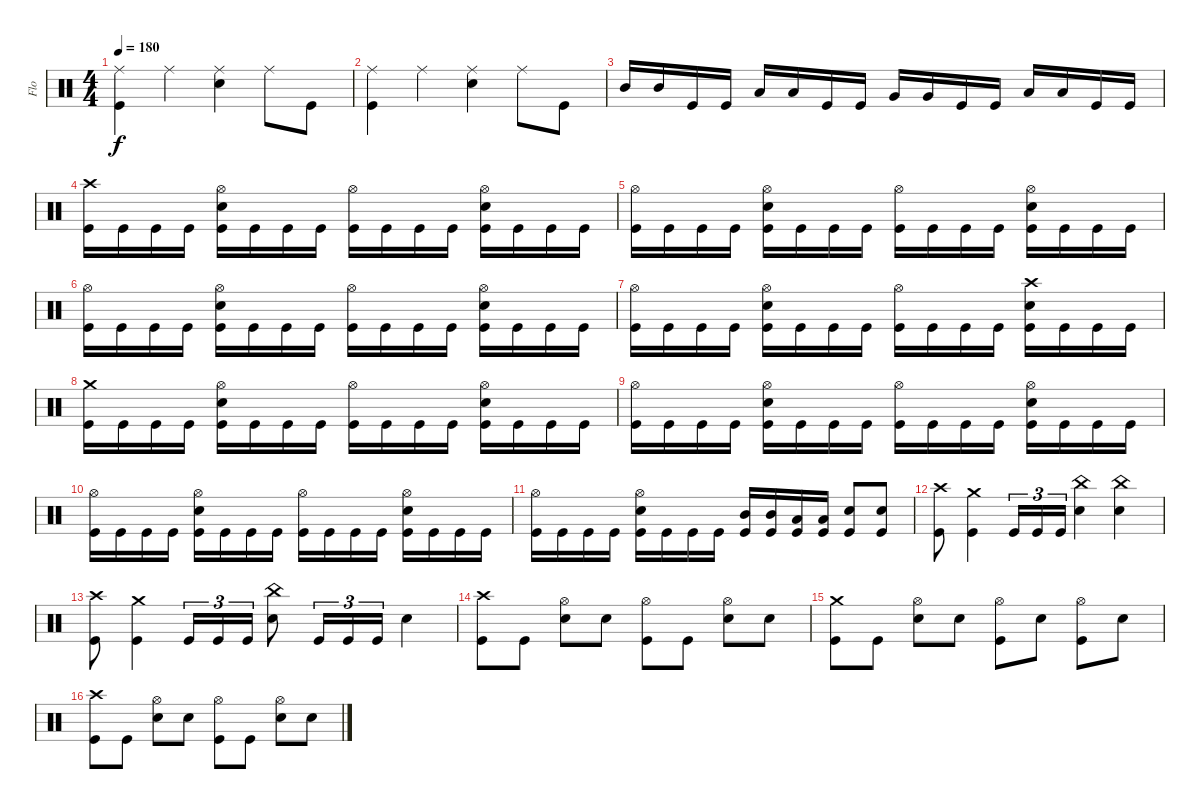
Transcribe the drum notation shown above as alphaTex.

\track ("Flo" "Flo") {instrument percussion}
\staff {score}
\articulation defaults
\ts (4 4)
\tempo 180
\clef neutral
\ks c
("Ride (middle)" "Kick (hit)").4{dy f} "Ride (middle)".4 ("Ride (middle)" "Snare (hit) 2").4 "Ride (middle)".8 "Kick (hit)".8 |
("Ride (middle)" "Kick (hit)").4 "Ride (middle)".4 ("Ride (middle)" "Snare (hit) 2").4 "Ride (middle)".8 "Kick (hit)".8 |
"Mid Tom (hit)".16 "Mid Tom (hit)".16 "Kick (hit)".16 "Kick (hit)".16 "Low Tom (hit)".16 "Low Tom (hit)".16 "Kick (hit)".16 "Kick (hit)".16 "Very Low Tom (hit)".16 "Very Low Tom (hit)".16 "Kick (hit)".16 "Kick (hit)".16 "Low Floor Tom (hit)".16 "Low Floor Tom (hit)".16 "Kick (hit)".16 "Kick (hit)".16 |
("Crash high (hit)" "Kick (hit)").16 "Kick (hit)".16 "Kick (hit)".16 "Kick (hit)".16 ("Hi-Hat (open)" "Snare (hit) 2" "Kick (hit)").16 "Kick (hit)".16 "Kick (hit)".16 "Kick (hit)".16 ("Hi-Hat (open)" "Kick (hit)").16 "Kick (hit)".16 "Kick (hit)".16 "Kick (hit)".16 ("Hi-Hat (open)" "Snare (hit) 2" "Kick (hit)").16 "Kick (hit)".16 "Kick (hit)".16 "Kick (hit)".16 |
("Hi-Hat (open)" "Kick (hit)").16 "Kick (hit)".16 "Kick (hit)".16 "Kick (hit)".16 ("Hi-Hat (open)" "Snare (hit) 2" "Kick (hit)").16 "Kick (hit)".16 "Kick (hit)".16 "Kick (hit)".16 ("Hi-Hat (open)" "Kick (hit)").16 "Kick (hit)".16 "Kick (hit)".16 "Kick (hit)".16 ("Hi-Hat (open)" "Snare (hit) 2" "Kick (hit)").16 "Kick (hit)".16 "Kick (hit)".16 "Kick (hit)".16 |
("Hi-Hat (open)" "Kick (hit)").16 "Kick (hit)".16 "Kick (hit)".16 "Kick (hit)".16 ("Hi-Hat (open)" "Snare (hit) 2" "Kick (hit)").16 "Kick (hit)".16 "Kick (hit)".16 "Kick (hit)".16 ("Hi-Hat (open)" "Kick (hit)").16 "Kick (hit)".16 "Kick (hit)".16 "Kick (hit)".16 ("Hi-Hat (open)" "Snare (hit) 2" "Kick (hit)").16 "Kick (hit)".16 "Kick (hit)".16 "Kick (hit)".16 |
("Hi-Hat (open)" "Kick (hit)").16 "Kick (hit)".16 "Kick (hit)".16 "Kick (hit)".16 ("Hi-Hat (open)" "Snare (hit) 2" "Kick (hit)").16 "Kick (hit)".16 "Kick (hit)".16 "Kick (hit)".16 ("Hi-Hat (open)" "Kick (hit)").16 "Kick (hit)".16 "Kick (hit)".16 "Kick (hit)".16 ("Crash high (hit)" "Snare (hit) 2" "Kick (hit)").16 "Kick (hit)".16 "Kick (hit)".16 "Kick (hit)".16 |
("Crash medium (hit)" "Kick (hit)").16 "Kick (hit)".16 "Kick (hit)".16 "Kick (hit)".16 ("Hi-Hat (open)" "Snare (hit) 2" "Kick (hit)").16 "Kick (hit)".16 "Kick (hit)".16 "Kick (hit)".16 ("Hi-Hat (open)" "Kick (hit)").16 "Kick (hit)".16 "Kick (hit)".16 "Kick (hit)".16 ("Hi-Hat (open)" "Snare (hit) 2" "Kick (hit)").16 "Kick (hit)".16 "Kick (hit)".16 "Kick (hit)".16 |
("Hi-Hat (open)" "Kick (hit)").16 "Kick (hit)".16 "Kick (hit)".16 "Kick (hit)".16 ("Hi-Hat (open)" "Snare (hit) 2" "Kick (hit)").16 "Kick (hit)".16 "Kick (hit)".16 "Kick (hit)".16 ("Hi-Hat (open)" "Kick (hit)").16 "Kick (hit)".16 "Kick (hit)".16 "Kick (hit)".16 ("Hi-Hat (open)" "Snare (hit) 2" "Kick (hit)").16 "Kick (hit)".16 "Kick (hit)".16 "Kick (hit)".16 |
("Hi-Hat (open)" "Kick (hit)").16 "Kick (hit)".16 "Kick (hit)".16 "Kick (hit)".16 ("Hi-Hat (open)" "Snare (hit) 2" "Kick (hit)").16 "Kick (hit)".16 "Kick (hit)".16 "Kick (hit)".16 ("Hi-Hat (open)" "Kick (hit)").16 "Kick (hit)".16 "Kick (hit)".16 "Kick (hit)".16 ("Hi-Hat (open)" "Snare (hit) 2" "Kick (hit)").16 "Kick (hit)".16 "Kick (hit)".16 "Kick (hit)".16 |
("Hi-Hat (open)" "Kick (hit)").16 "Kick (hit)".16 "Kick (hit)".16 "Kick (hit)".16 ("Hi-Hat (open)" "Snare (hit) 2" "Kick (hit)").16 "Kick (hit)".16 "Kick (hit)".16 "Kick (hit)".16 ("Mid Tom (hit)" "Kick (hit)").16 ("Mid Tom (hit)" "Kick (hit)").16 ("Low Tom (hit)" "Kick (hit)").16 ("Low Tom (hit)" "Kick (hit)").16 ("Snare (hit) 2" "Kick (hit)").8 ("Snare (hit) 2" "Kick (hit)").8 |
("Crash high (hit)" "Kick (hit)").8 ("Crash medium (hit)" "Kick (hit)").4 "Kick (hit)".16{tu (3 2)} "Kick (hit)".16{tu (3 2)} "Kick (hit)".16{tu (3 2)} ("China (hit)" "Snare (hit) 2").4 ("China (hit)" "Snare (hit) 2").4 |
("Crash high (hit)" "Kick (hit)").8 ("Crash medium (hit)" "Kick (hit)").4 "Kick (hit)".16{tu (3 2)} "Kick (hit)".16{tu (3 2)} "Kick (hit)".16{tu (3 2)} ("China (hit)" "Snare (hit) 2").8 "Kick (hit)".16{tu (3 2)} "Kick (hit)".16{tu (3 2)} "Kick (hit)".16{tu (3 2)} "Snare (hit) 2".4 |
("Crash high (hit)" "Kick (hit)").8 "Kick (hit)".8 ("Hi-Hat (open)" "Snare (hit) 2").8 "Snare (hit) 2".8 ("Hi-Hat (open)" "Kick (hit)").8 "Kick (hit)".8 ("Hi-Hat (open)" "Snare (hit) 2").8 "Snare (hit) 2".8 |
("Crash medium (hit)" "Kick (hit)").8 "Kick (hit)".8 ("Hi-Hat (open)" "Snare (hit) 2").8 "Snare (hit) 2".8 ("Hi-Hat (open)" "Kick (hit)").8 "Snare (hit) 2".8 ("Hi-Hat (open)" "Kick (hit)").8 "Snare (hit) 2".8 |
("Crash high (hit)" "Kick (hit)").8 "Kick (hit)".8 ("Hi-Hat (open)" "Snare (hit) 2").8 "Snare (hit) 2".8 ("Hi-Hat (open)" "Kick (hit)").8 "Kick (hit)".8 ("Hi-Hat (open)" "Snare (hit) 2").8 "Snare (hit) 2".8
